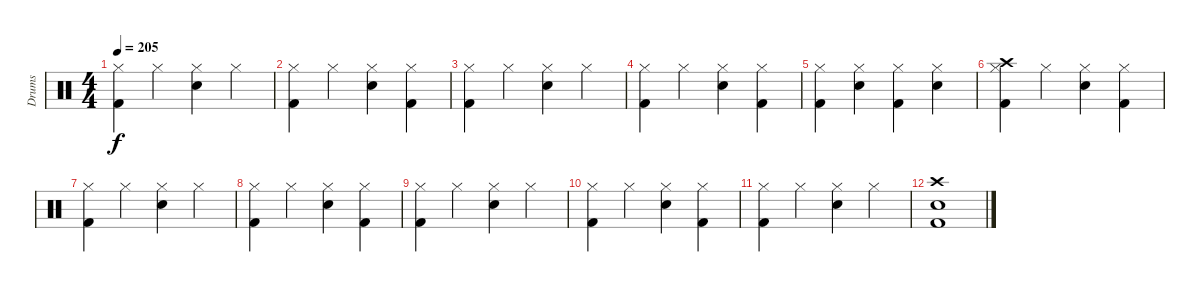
\track ("Drums" "Drums") {instrument percussion}
\staff {score}
\articulation defaults
\ts (4 4)
\tempo 205
\clef neutral
\ks c
("Kick (hit) 2" "Hi-Hat (closed)").4{dy f} "Hi-Hat (closed)".4 ("Snare (hit) 2" "Hi-Hat (closed)").4 "Hi-Hat (closed)".4 |
("Kick (hit) 2" "Hi-Hat (closed)").4 "Hi-Hat (closed)".4 ("Snare (hit) 2" "Hi-Hat (closed)").4 ("Kick (hit) 2" "Hi-Hat (closed)").4 |
("Kick (hit) 2" "Hi-Hat (closed)").4 "Hi-Hat (closed)".4 ("Snare (hit) 2" "Hi-Hat (closed)").4 "Hi-Hat (closed)".4 |
("Kick (hit) 2" "Hi-Hat (closed)").4 "Hi-Hat (closed)".4 ("Snare (hit) 2" "Hi-Hat (closed)").4 ("Kick (hit) 2" "Hi-Hat (closed)").4 |
("Kick (hit) 2" "Hi-Hat (closed)").4 ("Snare (hit) 2" "Hi-Hat (closed)").4 ("Kick (hit) 2" "Hi-Hat (closed)").4 ("Snare (hit) 2" "Hi-Hat (closed)").4 |
("Crash high (hit)" "Kick (hit) 2" "Hi-Hat (closed)").4 "Hi-Hat (closed)".4 ("Snare (hit) 2" "Hi-Hat (closed)").4 ("Kick (hit) 2" "Hi-Hat (closed)").4 |
("Kick (hit) 2" "Hi-Hat (closed)").4 "Hi-Hat (closed)".4 ("Snare (hit) 2" "Hi-Hat (closed)").4 "Hi-Hat (closed)".4 |
("Kick (hit) 2" "Hi-Hat (closed)").4 "Hi-Hat (closed)".4 ("Snare (hit) 2" "Hi-Hat (closed)").4 ("Kick (hit) 2" "Hi-Hat (closed)").4 |
("Kick (hit) 2" "Hi-Hat (closed)").4 "Hi-Hat (closed)".4 ("Snare (hit) 2" "Hi-Hat (closed)").4 "Hi-Hat (closed)".4 |
("Kick (hit) 2" "Hi-Hat (closed)").4 "Hi-Hat (closed)".4 ("Snare (hit) 2" "Hi-Hat (closed)").4 ("Kick (hit) 2" "Hi-Hat (closed)").4 |
("Kick (hit) 2" "Hi-Hat (closed)").4 "Hi-Hat (closed)".4 ("Snare (hit) 2" "Hi-Hat (closed)").4 "Hi-Hat (closed)".4 |
("Crash high (hit)" "Snare (hit) 2" "Kick (hit) 2").1
